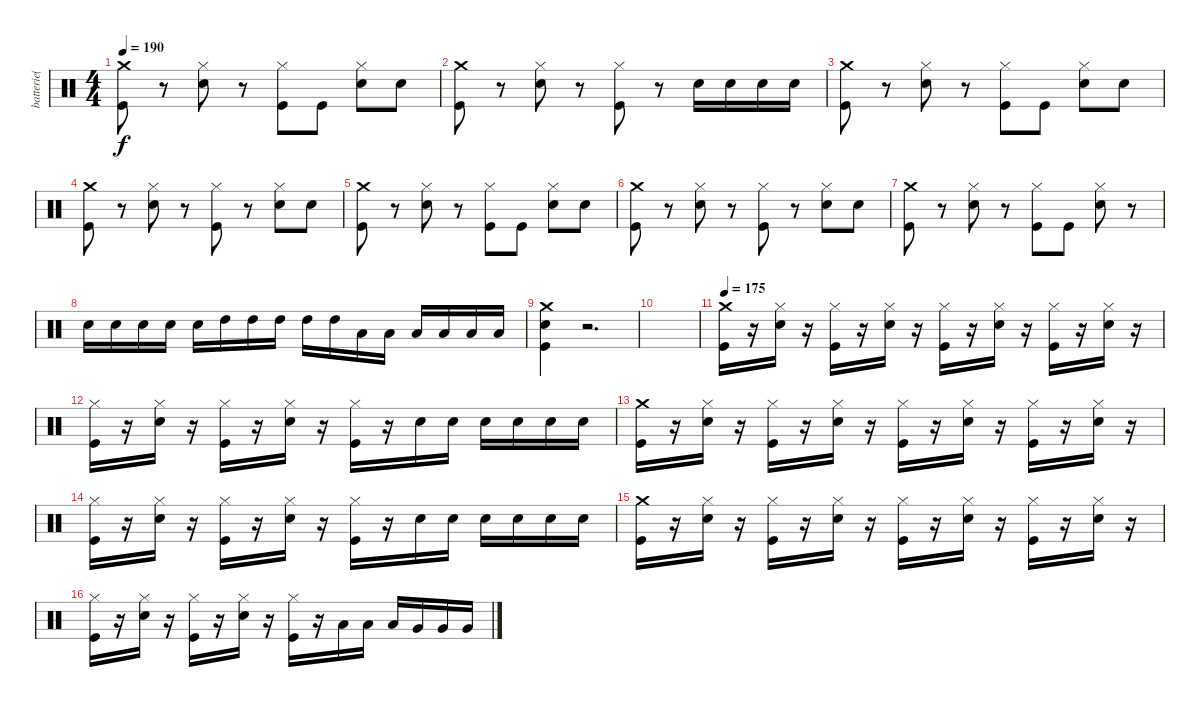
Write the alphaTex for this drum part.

\track ("batterie( Meggers )" "batterie( ") {instrument percussion}
\staff {score}
\articulation defaults
\ts (4 4)
\tempo 190
\clef neutral
\ks c
("Crash medium (hit)" "Kick (hit)").8{dy f} r.8 ("Hi-Hat (closed)" "Snare (hit) 2").8 r.8 ("Hi-Hat (closed)" "Kick (hit)").8 "Kick (hit)".8 ("Hi-Hat (closed)" "Snare (hit) 2").8 "Snare (hit) 2".8 |
("Crash medium (hit)" "Kick (hit)").8 r.8 ("Hi-Hat (closed)" "Snare (hit) 2").8 r.8 ("Hi-Hat (closed)" "Kick (hit)").8 r.8 "Snare (hit) 2".16 "Snare (hit) 2".16 "Snare (hit) 2".16 "Snare (hit) 2".16 |
("Crash medium (hit)" "Kick (hit)").8 r.8 ("Hi-Hat (closed)" "Snare (hit) 2").8 r.8 ("Hi-Hat (closed)" "Kick (hit)").8 "Kick (hit)".8 ("Hi-Hat (closed)" "Snare (hit) 2").8 "Snare (hit) 2".8 |
("Crash medium (hit)" "Kick (hit)").8 r.8 ("Hi-Hat (closed)" "Snare (hit) 2").8 r.8 ("Hi-Hat (closed)" "Kick (hit)").8 r.8 ("Hi-Hat (closed)" "Snare (hit) 2").8 "Snare (hit) 2".8 |
("Crash medium (hit)" "Kick (hit)").8 r.8 ("Hi-Hat (closed)" "Snare (hit) 2").8 r.8 ("Hi-Hat (closed)" "Kick (hit)").8 "Kick (hit)".8 ("Hi-Hat (closed)" "Snare (hit) 2").8 "Snare (hit) 2".8 |
("Crash medium (hit)" "Kick (hit)").8 r.8 ("Hi-Hat (closed)" "Snare (hit) 2").8 r.8 ("Hi-Hat (closed)" "Kick (hit)").8 r.8 ("Hi-Hat (closed)" "Snare (hit) 2").8 "Snare (hit) 2".8 |
("Crash medium (hit)" "Kick (hit)").8 r.8 ("Hi-Hat (closed)" "Snare (hit) 2").8 r.8 ("Hi-Hat (closed)" "Kick (hit)").8 "Kick (hit)".8 ("Hi-Hat (closed)" "Snare (hit) 2").8 r.8 |
"Snare (hit) 2".16 "Snare (hit) 2".16 "Snare (hit) 2".16 "Snare (hit) 2".16 "Snare (hit) 2".16 "High Tom (hit)".16 "High Tom (hit)".16 "High Tom (hit)".16 "High Tom (hit)".16 "High Tom (hit)".16 "Low Tom (hit)".16 "Low Tom (hit)".16 "Low Tom (hit)".16 "Low Tom (hit)".16 "Low Tom (hit)".16 "Low Tom (hit)".16 |
("Crash medium (hit)" "Snare (hit) 2" "Kick (hit)").4 r.2{d} |
|
\tempo 175
("Crash medium (hit)" "Kick (hit)").16 r.16 ("Hi-Hat (closed)" "Snare (hit) 2").16 r.16 ("Hi-Hat (closed)" "Kick (hit)").16 r.16 ("Hi-Hat (closed)" "Snare (hit) 2").16 r.16 ("Hi-Hat (closed)" "Kick (hit)").16 r.16 ("Hi-Hat (closed)" "Snare (hit) 2").16 r.16 ("Hi-Hat (closed)" "Kick (hit)").16 r.16 ("Hi-Hat (closed)" "Snare (hit) 2").16 r.16 |
("Hi-Hat (closed)" "Kick (hit)").16 r.16 ("Hi-Hat (closed)" "Snare (hit) 2").16 r.16 ("Hi-Hat (closed)" "Kick (hit)").16 r.16 ("Hi-Hat (closed)" "Snare (hit) 2").16 r.16 ("Hi-Hat (closed)" "Kick (hit)").16 r.16 "Snare (hit) 2".16 "Snare (hit) 2".16 "Snare (hit) 2".16 "Snare (hit) 2".16 "Snare (hit) 2".16 "Snare (hit) 2".16 |
("Crash medium (hit)" "Kick (hit)").16 r.16 ("Hi-Hat (closed)" "Snare (hit) 2").16 r.16 ("Hi-Hat (closed)" "Kick (hit)").16 r.16 ("Hi-Hat (closed)" "Snare (hit) 2").16 r.16 ("Hi-Hat (closed)" "Kick (hit)").16 r.16 ("Hi-Hat (closed)" "Snare (hit) 2").16 r.16 ("Hi-Hat (closed)" "Kick (hit)").16 r.16 ("Hi-Hat (closed)" "Snare (hit) 2").16 r.16 |
("Hi-Hat (closed)" "Kick (hit)").16 r.16 ("Hi-Hat (closed)" "Snare (hit) 2").16 r.16 ("Hi-Hat (closed)" "Kick (hit)").16 r.16 ("Hi-Hat (closed)" "Snare (hit) 2").16 r.16 ("Hi-Hat (closed)" "Kick (hit)").16 r.16 "Snare (hit) 2".16 "Snare (hit) 2".16 "Snare (hit) 2".16 "Snare (hit) 2".16 "Snare (hit) 2".16 "Snare (hit) 2".16 |
("Crash medium (hit)" "Kick (hit)").16 r.16 ("Hi-Hat (closed)" "Snare (hit) 2").16 r.16 ("Hi-Hat (closed)" "Kick (hit)").16 r.16 ("Hi-Hat (closed)" "Snare (hit) 2").16 r.16 ("Hi-Hat (closed)" "Kick (hit)").16 r.16 ("Hi-Hat (closed)" "Snare (hit) 2").16 r.16 ("Hi-Hat (closed)" "Kick (hit)").16 r.16 ("Hi-Hat (closed)" "Snare (hit) 2").16 r.16 |
("Hi-Hat (closed)" "Kick (hit)").16 r.16 ("Hi-Hat (closed)" "Snare (hit) 2").16 r.16 ("Hi-Hat (closed)" "Kick (hit)").16 r.16 ("Hi-Hat (closed)" "Snare (hit) 2").16 r.16 ("Hi-Hat (closed)" "Kick (hit)").16 r.16 "Low Tom (hit)".16 "Low Tom (hit)".16 "Low Tom (hit)".16 "Very Low Tom (hit)".16 "Very Low Tom (hit)".16 "Very Low Tom (hit)".16
